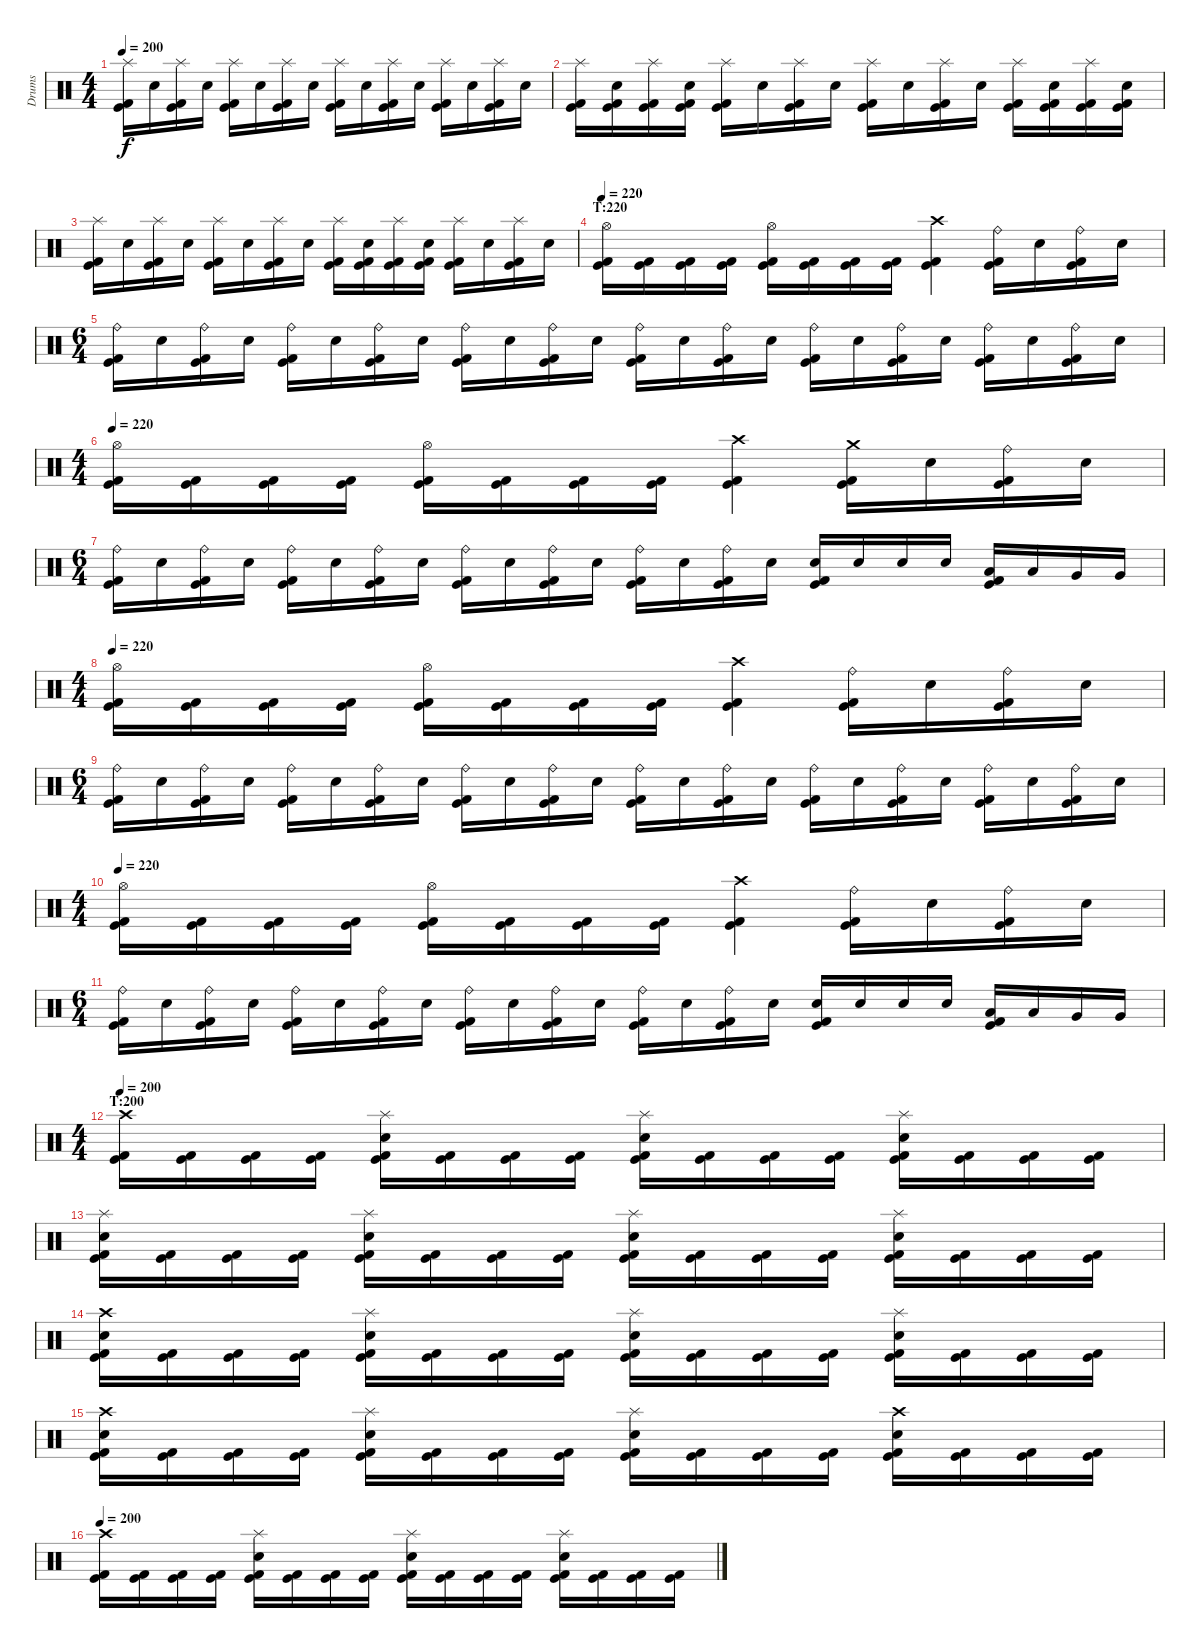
\track ("Drums" "Drums") {instrument percussion}
\staff {score}
\articulation defaults
\ts (4 4)
\tempo 200
\clef neutral
\ks c
("Splash (hit)" "Kick (hit)" "Kick (hit) 2").16{dy f} "Electric Snare (hit)".16 ("Splash (hit)" "Kick (hit)" "Kick (hit) 2").16 "Electric Snare (hit)".16 ("Splash (hit)" "Kick (hit)" "Kick (hit) 2").16 "Electric Snare (hit)".16 ("Splash (hit)" "Kick (hit)" "Kick (hit) 2").16 "Electric Snare (hit)".16 ("Splash (hit)" "Kick (hit)" "Kick (hit) 2").16 "Electric Snare (hit)".16 ("Splash (hit)" "Kick (hit)" "Kick (hit) 2").16 "Electric Snare (hit)".16 ("Splash (hit)" "Kick (hit)" "Kick (hit) 2").16 "Electric Snare (hit)".16 ("Splash (hit)" "Kick (hit)" "Kick (hit) 2").16 "Electric Snare (hit)".16 |
("Splash (hit)" "Kick (hit)" "Kick (hit) 2").16 ("Electric Snare (hit)" "Kick (hit)" "Kick (hit) 2").16 ("Splash (hit)" "Kick (hit)" "Kick (hit) 2").16 ("Electric Snare (hit)" "Kick (hit)" "Kick (hit) 2").16 ("Splash (hit)" "Kick (hit)" "Kick (hit) 2").16 "Electric Snare (hit)".16 ("Splash (hit)" "Kick (hit)" "Kick (hit) 2").16 "Electric Snare (hit)".16 ("Splash (hit)" "Kick (hit)" "Kick (hit) 2").16 "Electric Snare (hit)".16 ("Splash (hit)" "Kick (hit)" "Kick (hit) 2").16 "Electric Snare (hit)".16 ("Splash (hit)" "Kick (hit)" "Kick (hit) 2").16 ("Electric Snare (hit)" "Kick (hit)" "Kick (hit) 2").16 ("Splash (hit)" "Kick (hit)" "Kick (hit) 2").16 ("Electric Snare (hit)" "Kick (hit)" "Kick (hit) 2").16 |
("Splash (hit)" "Kick (hit)" "Kick (hit) 2").16 "Electric Snare (hit)".16 ("Splash (hit)" "Kick (hit)" "Kick (hit) 2").16 "Electric Snare (hit)".16 ("Splash (hit)" "Kick (hit)" "Kick (hit) 2").16 "Electric Snare (hit)".16 ("Splash (hit)" "Kick (hit)" "Kick (hit) 2").16 "Electric Snare (hit)".16 ("Splash (hit)" "Kick (hit)" "Kick (hit) 2").16 ("Electric Snare (hit)" "Kick (hit)" "Kick (hit) 2").16 ("Splash (hit)" "Kick (hit)" "Kick (hit) 2").16 ("Electric Snare (hit)" "Kick (hit)" "Kick (hit) 2").16 ("Splash (hit)" "Kick (hit)" "Kick (hit) 2").16 "Electric Snare (hit)".16 ("Splash (hit)" "Kick (hit)" "Kick (hit) 2").16 "Electric Snare (hit)".16 |
\section ("" "T:220")
\tempo 220
("Hi-Hat (open)" "Kick (hit)" "Kick (hit) 2").16 ("Kick (hit)" "Kick (hit) 2").16 ("Kick (hit)" "Kick (hit) 2").16 ("Kick (hit)" "Kick (hit) 2").16 ("Hi-Hat (open)" "Kick (hit)" "Kick (hit) 2").16 ("Kick (hit)" "Kick (hit) 2").16 ("Kick (hit)" "Kick (hit) 2").16 ("Kick (hit)" "Kick (hit) 2").16 ("Crash high (hit)" "Kick (hit)" "Kick (hit) 2").4 ("Ride (bell)" "Kick (hit)" "Kick (hit) 2").16 "Electric Snare (hit)".16 ("Ride (bell)" "Kick (hit)" "Kick (hit) 2").16 "Electric Snare (hit)".16 |
\ts (6 4)
("Ride (bell)" "Kick (hit)" "Kick (hit) 2").16 "Electric Snare (hit)".16 ("Ride (bell)" "Kick (hit)" "Kick (hit) 2").16 "Electric Snare (hit)".16 ("Ride (bell)" "Kick (hit)" "Kick (hit) 2").16 "Electric Snare (hit)".16 ("Ride (bell)" "Kick (hit)" "Kick (hit) 2").16 "Electric Snare (hit)".16 ("Ride (bell)" "Kick (hit)" "Kick (hit) 2").16 "Electric Snare (hit)".16 ("Ride (bell)" "Kick (hit)" "Kick (hit) 2").16 "Electric Snare (hit)".16 ("Ride (bell)" "Kick (hit)" "Kick (hit) 2").16 "Electric Snare (hit)".16 ("Ride (bell)" "Kick (hit)" "Kick (hit) 2").16 "Electric Snare (hit)".16 ("Ride (bell)" "Kick (hit)" "Kick (hit) 2").16 "Electric Snare (hit)".16 ("Ride (bell)" "Kick (hit)" "Kick (hit) 2").16 "Electric Snare (hit)".16 ("Ride (bell)" "Kick (hit)" "Kick (hit) 2").16 "Electric Snare (hit)".16 ("Ride (bell)" "Kick (hit)" "Kick (hit) 2").16 "Electric Snare (hit)".16 |
\ts (4 4)
\tempo 220
("Hi-Hat (open)" "Kick (hit)" "Kick (hit) 2").16 ("Kick (hit)" "Kick (hit) 2").16 ("Kick (hit)" "Kick (hit) 2").16 ("Kick (hit)" "Kick (hit) 2").16 ("Hi-Hat (open)" "Kick (hit)" "Kick (hit) 2").16 ("Kick (hit)" "Kick (hit) 2").16 ("Kick (hit)" "Kick (hit) 2").16 ("Kick (hit)" "Kick (hit) 2").16 ("Crash high (hit)" "Kick (hit)" "Kick (hit) 2").4 ("Crash medium (hit)" "Kick (hit)" "Kick (hit) 2").16 "Electric Snare (hit)".16 ("Ride (bell)" "Kick (hit)" "Kick (hit) 2").16 "Electric Snare (hit)".16 |
\ts (6 4)
("Ride (bell)" "Kick (hit)" "Kick (hit) 2").16 "Electric Snare (hit)".16 ("Ride (bell)" "Kick (hit)" "Kick (hit) 2").16 "Electric Snare (hit)".16 ("Ride (bell)" "Kick (hit)" "Kick (hit) 2").16 "Electric Snare (hit)".16 ("Ride (bell)" "Kick (hit)" "Kick (hit) 2").16 "Electric Snare (hit)".16 ("Ride (bell)" "Kick (hit)" "Kick (hit) 2").16 "Electric Snare (hit)".16 ("Ride (bell)" "Kick (hit)" "Kick (hit) 2").16 "Electric Snare (hit)".16 ("Ride (bell)" "Kick (hit)" "Kick (hit) 2").16 "Electric Snare (hit)".16 ("Ride (bell)" "Kick (hit)" "Kick (hit) 2").16 "Electric Snare (hit)".16 ("Electric Snare (hit)" "Kick (hit)" "Kick (hit) 2").16 "Electric Snare (hit)".16 "Electric Snare (hit)".16 "Electric Snare (hit)".16 ("Low Tom (hit)" "Kick (hit)" "Kick (hit) 2").16 "Low Tom (hit)".16 "Very Low Tom (hit)".16 "Very Low Tom (hit)".16 |
\ts (4 4)
\tempo 220
("Hi-Hat (open)" "Kick (hit)" "Kick (hit) 2").16 ("Kick (hit)" "Kick (hit) 2").16 ("Kick (hit)" "Kick (hit) 2").16 ("Kick (hit)" "Kick (hit) 2").16 ("Hi-Hat (open)" "Kick (hit)" "Kick (hit) 2").16 ("Kick (hit)" "Kick (hit) 2").16 ("Kick (hit)" "Kick (hit) 2").16 ("Kick (hit)" "Kick (hit) 2").16 ("Crash high (hit)" "Kick (hit)" "Kick (hit) 2").4 ("Ride (bell)" "Kick (hit)" "Kick (hit) 2").16 "Electric Snare (hit)".16 ("Ride (bell)" "Kick (hit)" "Kick (hit) 2").16 "Electric Snare (hit)".16 |
\ts (6 4)
("Ride (bell)" "Kick (hit)" "Kick (hit) 2").16 "Electric Snare (hit)".16 ("Ride (bell)" "Kick (hit)" "Kick (hit) 2").16 "Electric Snare (hit)".16 ("Ride (bell)" "Kick (hit)" "Kick (hit) 2").16 "Electric Snare (hit)".16 ("Ride (bell)" "Kick (hit)" "Kick (hit) 2").16 "Electric Snare (hit)".16 ("Ride (bell)" "Kick (hit)" "Kick (hit) 2").16 "Electric Snare (hit)".16 ("Ride (bell)" "Kick (hit)" "Kick (hit) 2").16 "Electric Snare (hit)".16 ("Ride (bell)" "Kick (hit)" "Kick (hit) 2").16 "Electric Snare (hit)".16 ("Ride (bell)" "Kick (hit)" "Kick (hit) 2").16 "Electric Snare (hit)".16 ("Ride (bell)" "Kick (hit)" "Kick (hit) 2").16 "Electric Snare (hit)".16 ("Ride (bell)" "Kick (hit)" "Kick (hit) 2").16 "Electric Snare (hit)".16 ("Ride (bell)" "Kick (hit)" "Kick (hit) 2").16 "Electric Snare (hit)".16 ("Ride (bell)" "Kick (hit)" "Kick (hit) 2").16 "Electric Snare (hit)".16 |
\ts (4 4)
\tempo 220
("Hi-Hat (open)" "Kick (hit)" "Kick (hit) 2").16 ("Kick (hit)" "Kick (hit) 2").16 ("Kick (hit)" "Kick (hit) 2").16 ("Kick (hit)" "Kick (hit) 2").16 ("Hi-Hat (open)" "Kick (hit)" "Kick (hit) 2").16 ("Kick (hit)" "Kick (hit) 2").16 ("Kick (hit)" "Kick (hit) 2").16 ("Kick (hit)" "Kick (hit) 2").16 ("Crash high (hit)" "Kick (hit)" "Kick (hit) 2").4 ("Ride (bell)" "Kick (hit)" "Kick (hit) 2").16 "Electric Snare (hit)".16 ("Ride (bell)" "Kick (hit)" "Kick (hit) 2").16 "Electric Snare (hit)".16 |
\ts (6 4)
("Ride (bell)" "Kick (hit)" "Kick (hit) 2").16 "Electric Snare (hit)".16 ("Ride (bell)" "Kick (hit)" "Kick (hit) 2").16 "Electric Snare (hit)".16 ("Ride (bell)" "Kick (hit)" "Kick (hit) 2").16 "Electric Snare (hit)".16 ("Ride (bell)" "Kick (hit)" "Kick (hit) 2").16 "Electric Snare (hit)".16 ("Ride (bell)" "Kick (hit)" "Kick (hit) 2").16 "Electric Snare (hit)".16 ("Ride (bell)" "Kick (hit)" "Kick (hit) 2").16 "Electric Snare (hit)".16 ("Ride (bell)" "Kick (hit)" "Kick (hit) 2").16 "Electric Snare (hit)".16 ("Ride (bell)" "Kick (hit)" "Kick (hit) 2").16 "Electric Snare (hit)".16 ("Electric Snare (hit)" "Kick (hit)" "Kick (hit) 2").16 "Electric Snare (hit)".16 "Electric Snare (hit)".16 "Electric Snare (hit)".16 ("Low Tom (hit)" "Kick (hit)" "Kick (hit) 2").16 "Low Tom (hit)".16 "Very Low Tom (hit)".16 "Very Low Tom (hit)".16 |
\ts (4 4)
\section ("" "T:200")
\tempo 200
("Crash high (hit)" "Kick (hit)" "Kick (hit) 2").16 ("Kick (hit)" "Kick (hit) 2").16 ("Kick (hit)" "Kick (hit) 2").16 ("Kick (hit)" "Kick (hit) 2").16 ("Splash (hit)" "Electric Snare (hit)" "Kick (hit)" "Kick (hit) 2").16 ("Kick (hit)" "Kick (hit) 2").16 ("Kick (hit)" "Kick (hit) 2").16 ("Kick (hit)" "Kick (hit) 2").16 ("Splash (hit)" "Electric Snare (hit)" "Kick (hit)" "Kick (hit) 2").16 ("Kick (hit)" "Kick (hit) 2").16 ("Kick (hit)" "Kick (hit) 2").16 ("Kick (hit)" "Kick (hit) 2").16 ("Splash (hit)" "Electric Snare (hit)" "Kick (hit)" "Kick (hit) 2").16 ("Kick (hit)" "Kick (hit) 2").16 ("Kick (hit)" "Kick (hit) 2").16 ("Kick (hit)" "Kick (hit) 2").16 |
("Splash (hit)" "Electric Snare (hit)" "Kick (hit)" "Kick (hit) 2").16 ("Kick (hit)" "Kick (hit) 2").16 ("Kick (hit)" "Kick (hit) 2").16 ("Kick (hit)" "Kick (hit) 2").16 ("Splash (hit)" "Electric Snare (hit)" "Kick (hit)" "Kick (hit) 2").16 ("Kick (hit)" "Kick (hit) 2").16 ("Kick (hit)" "Kick (hit) 2").16 ("Kick (hit)" "Kick (hit) 2").16 ("Splash (hit)" "Electric Snare (hit)" "Kick (hit)" "Kick (hit) 2").16 ("Kick (hit)" "Kick (hit) 2").16 ("Kick (hit)" "Kick (hit) 2").16 ("Kick (hit)" "Kick (hit) 2").16 ("Splash (hit)" "Electric Snare (hit)" "Kick (hit)" "Kick (hit) 2").16 ("Kick (hit)" "Kick (hit) 2").16 ("Kick (hit)" "Kick (hit) 2").16 ("Kick (hit)" "Kick (hit) 2").16 |
("Crash high (hit)" "Electric Snare (hit)" "Kick (hit)" "Kick (hit) 2").16 ("Kick (hit)" "Kick (hit) 2").16 ("Kick (hit)" "Kick (hit) 2").16 ("Kick (hit)" "Kick (hit) 2").16 ("Splash (hit)" "Electric Snare (hit)" "Kick (hit)" "Kick (hit) 2").16 ("Kick (hit)" "Kick (hit) 2").16 ("Kick (hit)" "Kick (hit) 2").16 ("Kick (hit)" "Kick (hit) 2").16 ("Splash (hit)" "Electric Snare (hit)" "Kick (hit)" "Kick (hit) 2").16 ("Kick (hit)" "Kick (hit) 2").16 ("Kick (hit)" "Kick (hit) 2").16 ("Kick (hit)" "Kick (hit) 2").16 ("Splash (hit)" "Electric Snare (hit)" "Kick (hit)" "Kick (hit) 2").16 ("Kick (hit)" "Kick (hit) 2").16 ("Kick (hit)" "Kick (hit) 2").16 ("Kick (hit)" "Kick (hit) 2").16 |
("Crash high (hit)" "Electric Snare (hit)" "Kick (hit)" "Kick (hit) 2").16 ("Kick (hit)" "Kick (hit) 2").16 ("Kick (hit)" "Kick (hit) 2").16 ("Kick (hit)" "Kick (hit) 2").16 ("Splash (hit)" "Electric Snare (hit)" "Kick (hit)" "Kick (hit) 2").16 ("Kick (hit)" "Kick (hit) 2").16 ("Kick (hit)" "Kick (hit) 2").16 ("Kick (hit)" "Kick (hit) 2").16 ("Splash (hit)" "Electric Snare (hit)" "Kick (hit)" "Kick (hit) 2").16 ("Kick (hit)" "Kick (hit) 2").16 ("Kick (hit)" "Kick (hit) 2").16 ("Kick (hit)" "Kick (hit) 2").16 ("Crash high (hit)" "Electric Snare (hit)" "Kick (hit)" "Kick (hit) 2").16 ("Kick (hit)" "Kick (hit) 2").16 ("Kick (hit)" "Kick (hit) 2").16 ("Kick (hit)" "Kick (hit) 2").16 |
\tempo 200
("Crash high (hit)" "Kick (hit)" "Kick (hit) 2").16 ("Kick (hit)" "Kick (hit) 2").16 ("Kick (hit)" "Kick (hit) 2").16 ("Kick (hit)" "Kick (hit) 2").16 ("Splash (hit)" "Electric Snare (hit)" "Kick (hit)" "Kick (hit) 2").16 ("Kick (hit)" "Kick (hit) 2").16 ("Kick (hit)" "Kick (hit) 2").16 ("Kick (hit)" "Kick (hit) 2").16 ("Splash (hit)" "Electric Snare (hit)" "Kick (hit)" "Kick (hit) 2").16 ("Kick (hit)" "Kick (hit) 2").16 ("Kick (hit)" "Kick (hit) 2").16 ("Kick (hit)" "Kick (hit) 2").16 ("Splash (hit)" "Electric Snare (hit)" "Kick (hit)" "Kick (hit) 2").16 ("Kick (hit)" "Kick (hit) 2").16 ("Kick (hit)" "Kick (hit) 2").16 ("Kick (hit)" "Kick (hit) 2").16
